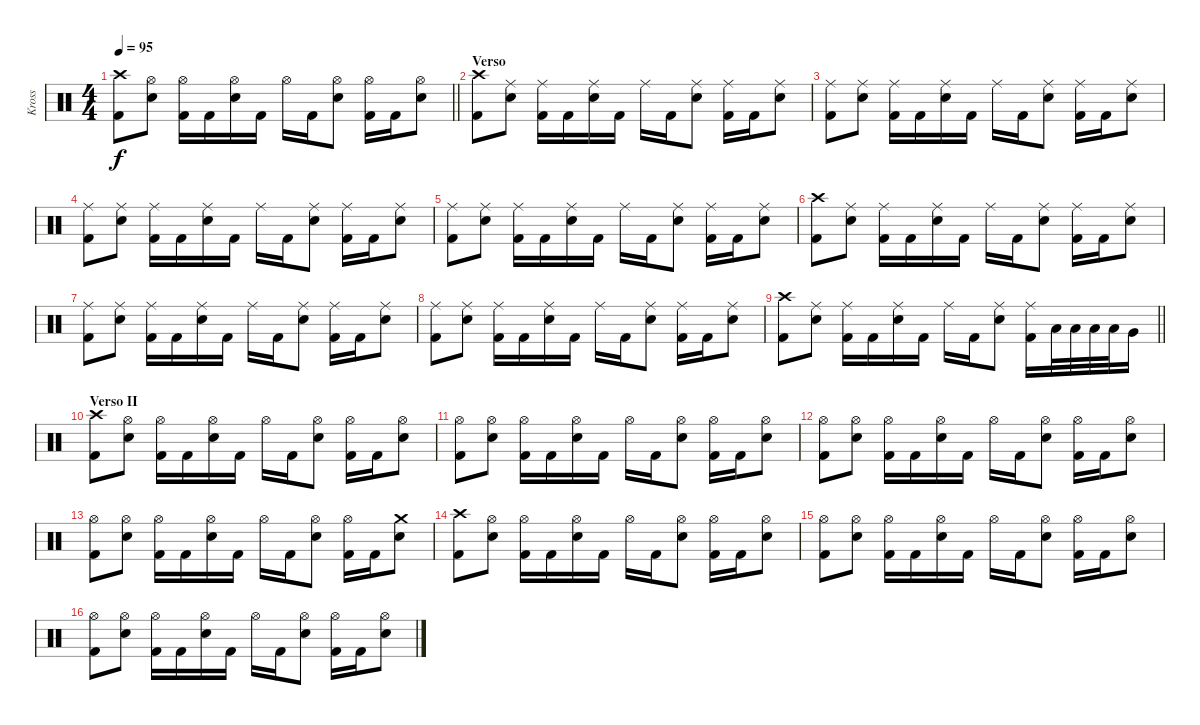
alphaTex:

\track ("Kross" "Kross") {instrument percussion}
\staff {score}
\articulation defaults
\ts (4 4)
\tempo 95
\clef neutral
\barLineRight lightlight
\ks c
("Crash high (hit)" "Kick (hit) 2").8{dy f} ("Hi-Hat (open)" "Electric Snare (hit)").8 ("Hi-Hat (open)" "Kick (hit) 2").16 "Kick (hit) 2".16 ("Hi-Hat (open)" "Electric Snare (hit)").16 "Kick (hit) 2".16 "Hi-Hat (open)".16 "Kick (hit) 2".16 ("Hi-Hat (open)" "Electric Snare (hit)").8 ("Hi-Hat (open)" "Kick (hit) 2").16 "Kick (hit) 2".16 ("Hi-Hat (open)" "Electric Snare (hit)").8 |
\section ("" "Verso")
("Crash high (hit)" "Kick (hit) 2").8 ("Ride (middle)" "Electric Snare (hit)").8 ("Ride (middle)" "Kick (hit) 2").16 "Kick (hit) 2".16 ("Ride (middle)" "Electric Snare (hit)").16 "Kick (hit) 2".16 "Ride (middle)".16 "Kick (hit) 2".16 ("Ride (middle)" "Electric Snare (hit)").8 ("Ride (middle)" "Kick (hit) 2").16 "Kick (hit) 2".16 ("Ride (middle)" "Electric Snare (hit)").8 |
("Ride (middle)" "Kick (hit) 2").8 ("Ride (middle)" "Electric Snare (hit)").8 ("Ride (middle)" "Kick (hit) 2").16 "Kick (hit) 2".16 ("Ride (middle)" "Electric Snare (hit)").16 "Kick (hit) 2".16 "Ride (middle)".16 "Kick (hit) 2".16 ("Ride (middle)" "Electric Snare (hit)").8 ("Ride (middle)" "Kick (hit) 2").16 "Kick (hit) 2".16 ("Ride (middle)" "Electric Snare (hit)").8 |
("Ride (middle)" "Kick (hit) 2").8 ("Ride (middle)" "Electric Snare (hit)").8 ("Ride (middle)" "Kick (hit) 2").16 "Kick (hit) 2".16 ("Ride (middle)" "Electric Snare (hit)").16 "Kick (hit) 2".16 "Ride (middle)".16 "Kick (hit) 2".16 ("Ride (middle)" "Electric Snare (hit)").8 ("Ride (middle)" "Kick (hit) 2").16 "Kick (hit) 2".16 ("Ride (middle)" "Electric Snare (hit)").8 |
("Ride (middle)" "Kick (hit) 2").8 ("Ride (middle)" "Electric Snare (hit)").8 ("Ride (middle)" "Kick (hit) 2").16 "Kick (hit) 2".16 ("Ride (middle)" "Electric Snare (hit)").16 "Kick (hit) 2".16 "Ride (middle)".16 "Kick (hit) 2".16 ("Ride (middle)" "Electric Snare (hit)").8 ("Ride (middle)" "Kick (hit) 2").16 "Kick (hit) 2".16 ("Ride (middle)" "Electric Snare (hit)").8 |
("Crash high (hit)" "Kick (hit) 2").8 ("Ride (middle)" "Electric Snare (hit)").8 ("Ride (middle)" "Kick (hit) 2").16 "Kick (hit) 2".16 ("Ride (middle)" "Electric Snare (hit)").16 "Kick (hit) 2".16 "Ride (middle)".16 "Kick (hit) 2".16 ("Ride (middle)" "Electric Snare (hit)").8 ("Ride (middle)" "Kick (hit) 2").16 "Kick (hit) 2".16 ("Ride (middle)" "Electric Snare (hit)").8 |
("Ride (middle)" "Kick (hit) 2").8 ("Ride (middle)" "Electric Snare (hit)").8 ("Ride (middle)" "Kick (hit) 2").16 "Kick (hit) 2".16 ("Ride (middle)" "Electric Snare (hit)").16 "Kick (hit) 2".16 "Ride (middle)".16 "Kick (hit) 2".16 ("Ride (middle)" "Electric Snare (hit)").8 ("Ride (middle)" "Kick (hit) 2").16 "Kick (hit) 2".16 ("Ride (middle)" "Electric Snare (hit)").8 |
("Ride (middle)" "Kick (hit) 2").8 ("Ride (middle)" "Electric Snare (hit)").8 ("Ride (middle)" "Kick (hit) 2").16 "Kick (hit) 2".16 ("Ride (middle)" "Electric Snare (hit)").16 "Kick (hit) 2".16 "Ride (middle)".16 "Kick (hit) 2".16 ("Ride (middle)" "Electric Snare (hit)").8 ("Ride (middle)" "Kick (hit) 2").16 "Kick (hit) 2".16 ("Ride (middle)" "Electric Snare (hit)").8 |
\barLineRight lightlight
("Crash high (hit)" "Kick (hit) 2").8 ("Ride (middle)" "Electric Snare (hit)").8 ("Ride (middle)" "Kick (hit) 2").16 "Kick (hit) 2".16 ("Ride (middle)" "Electric Snare (hit)").16 "Kick (hit) 2".16 "Ride (middle)".16 "Kick (hit) 2".16 ("Ride (middle)" "Electric Snare (hit)").8 ("Ride (middle)" "Kick (hit) 2").16 "Low Tom (hit)".32 "Low Tom (hit)".32 "Low Tom (hit)".32 "Low Tom (hit)".32 "Very Low Tom (hit)".16 |
\section ("" "Verso II")
("Crash high (hit)" "Kick (hit) 2").8 ("Hi-Hat (open)" "Electric Snare (hit)").8 ("Hi-Hat (open)" "Kick (hit) 2").16 "Kick (hit) 2".16 ("Hi-Hat (open)" "Electric Snare (hit)").16 "Kick (hit) 2".16 "Hi-Hat (open)".16 "Kick (hit) 2".16 ("Hi-Hat (open)" "Electric Snare (hit)").8 ("Hi-Hat (open)" "Kick (hit) 2").16 "Kick (hit) 2".16 ("Hi-Hat (open)" "Electric Snare (hit)").8 |
("Hi-Hat (open)" "Kick (hit) 2").8 ("Hi-Hat (open)" "Electric Snare (hit)").8 ("Hi-Hat (open)" "Kick (hit) 2").16 "Kick (hit) 2".16 ("Hi-Hat (open)" "Electric Snare (hit)").16 "Kick (hit) 2".16 "Hi-Hat (open)".16 "Kick (hit) 2".16 ("Hi-Hat (open)" "Electric Snare (hit)").8 ("Hi-Hat (open)" "Kick (hit) 2").16 "Kick (hit) 2".16 ("Hi-Hat (open)" "Electric Snare (hit)").8 |
("Hi-Hat (open)" "Kick (hit) 2").8 ("Hi-Hat (open)" "Electric Snare (hit)").8 ("Hi-Hat (open)" "Kick (hit) 2").16 "Kick (hit) 2".16 ("Hi-Hat (open)" "Electric Snare (hit)").16 "Kick (hit) 2".16 "Hi-Hat (open)".16 "Kick (hit) 2".16 ("Hi-Hat (open)" "Electric Snare (hit)").8 ("Hi-Hat (open)" "Kick (hit) 2").16 "Kick (hit) 2".16 ("Hi-Hat (open)" "Electric Snare (hit)").8 |
("Hi-Hat (open)" "Kick (hit) 2").8 ("Hi-Hat (open)" "Electric Snare (hit)").8 ("Hi-Hat (open)" "Kick (hit) 2").16 "Kick (hit) 2".16 ("Hi-Hat (open)" "Electric Snare (hit)").16 "Kick (hit) 2".16 "Hi-Hat (open)".16 "Kick (hit) 2".16 ("Hi-Hat (open)" "Electric Snare (hit)").8 ("Hi-Hat (open)" "Kick (hit) 2").16 "Kick (hit) 2".16 ("Crash medium (hit)" "Electric Snare (hit)").8 |
("Crash high (hit)" "Kick (hit) 2").8 ("Hi-Hat (open)" "Electric Snare (hit)").8 ("Hi-Hat (open)" "Kick (hit) 2").16 "Kick (hit) 2".16 ("Hi-Hat (open)" "Electric Snare (hit)").16 "Kick (hit) 2".16 "Hi-Hat (open)".16 "Kick (hit) 2".16 ("Hi-Hat (open)" "Electric Snare (hit)").8 ("Hi-Hat (open)" "Kick (hit) 2").16 "Kick (hit) 2".16 ("Hi-Hat (open)" "Electric Snare (hit)").8 |
("Hi-Hat (open)" "Kick (hit) 2").8 ("Hi-Hat (open)" "Electric Snare (hit)").8 ("Hi-Hat (open)" "Kick (hit) 2").16 "Kick (hit) 2".16 ("Hi-Hat (open)" "Electric Snare (hit)").16 "Kick (hit) 2".16 "Hi-Hat (open)".16 "Kick (hit) 2".16 ("Hi-Hat (open)" "Electric Snare (hit)").8 ("Hi-Hat (open)" "Kick (hit) 2").16 "Kick (hit) 2".16 ("Hi-Hat (open)" "Electric Snare (hit)").8 |
("Hi-Hat (open)" "Kick (hit) 2").8 ("Hi-Hat (open)" "Electric Snare (hit)").8 ("Hi-Hat (open)" "Kick (hit) 2").16 "Kick (hit) 2".16 ("Hi-Hat (open)" "Electric Snare (hit)").16 "Kick (hit) 2".16 "Hi-Hat (open)".16 "Kick (hit) 2".16 ("Hi-Hat (open)" "Electric Snare (hit)").8 ("Hi-Hat (open)" "Kick (hit) 2").16 "Kick (hit) 2".16 ("Hi-Hat (open)" "Electric Snare (hit)").8
